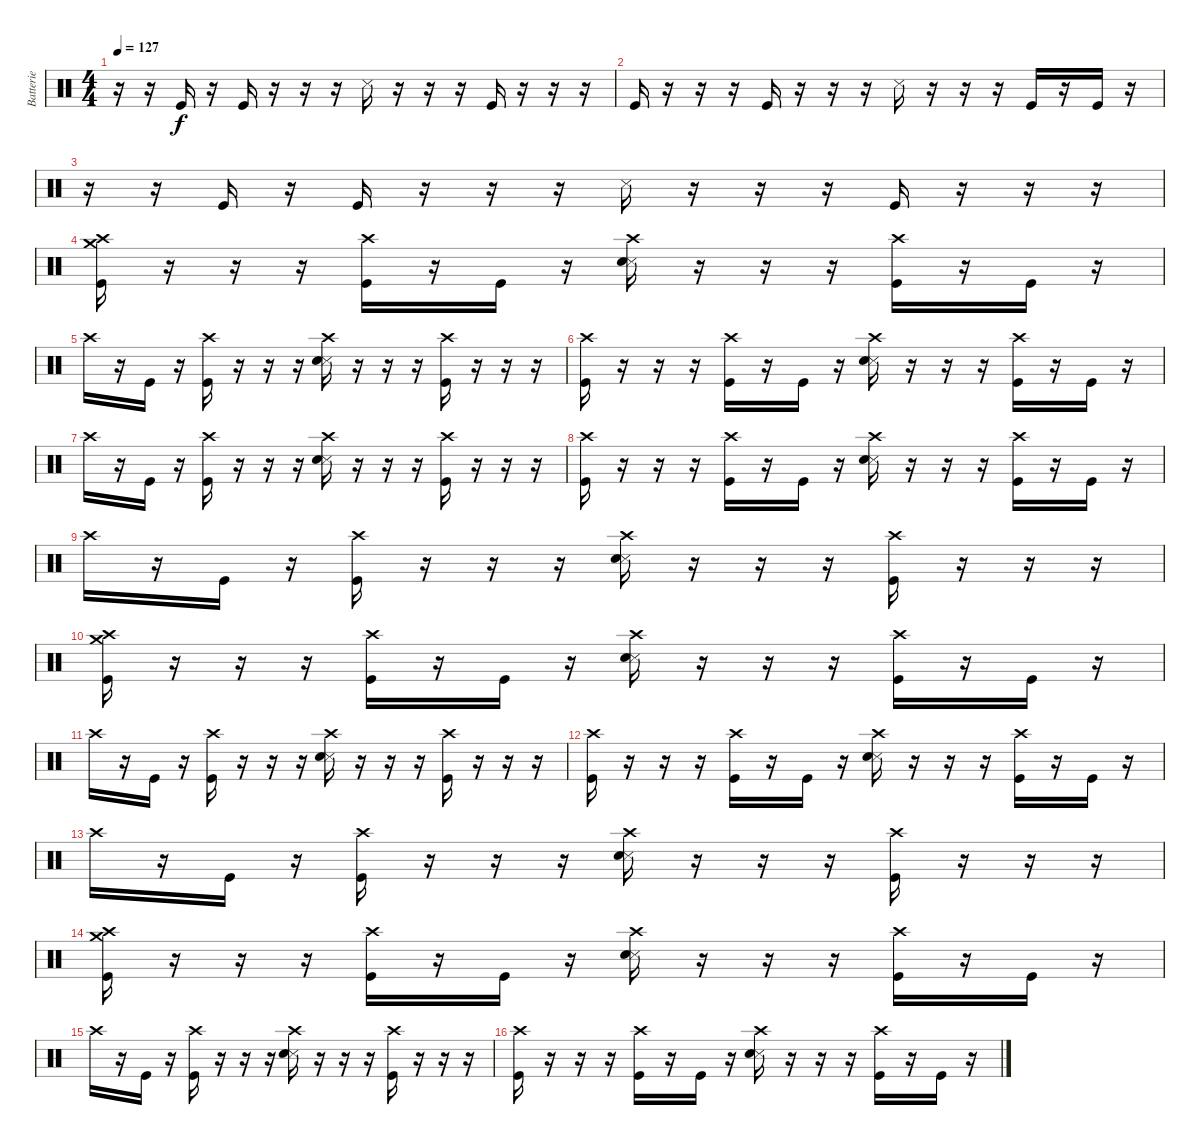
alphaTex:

\track ("Batterie" "Batterie") {instrument percussion}
\staff {score}
\articulation defaults
\ts (4 4)
\tempo 127
\clef neutral
\ks c
r.16{dy f} r.16 "Kick (hit)".16 r.16 "Kick (hit)".16 r.16 r.16 r.16 "Snare (side stick) 3".16 r.16 r.16 r.16 "Kick (hit)".16 r.16 r.16 r.16 |
"Kick (hit)".16 r.16 r.16 r.16 "Kick (hit)".16 r.16 r.16 r.16 "Snare (side stick) 3".16 r.16 r.16 r.16 "Kick (hit)".16 r.16 "Kick (hit)".16 r.16 |
r.16 r.16 "Kick (hit)".16 r.16 "Kick (hit)".16 r.16 r.16 r.16 "Snare (side stick) 3".16 r.16 r.16 r.16 "Kick (hit)".16 r.16 r.16 r.16 |
("Crash high (hit)" "Crash medium (hit)" "Kick (hit)").16 r.16 r.16 r.16 ("Crash high (hit)" "Kick (hit)").16 r.16 "Kick (hit)".16 r.16 ("Crash high (hit)" "Snare (side stick) 3" "Electric Snare (hit)").16 r.16 r.16 r.16 ("Crash high (hit)" "Kick (hit)").16 r.16 "Kick (hit)".16 r.16 |
"Crash high (hit)".16 r.16 "Kick (hit)".16 r.16 ("Crash high (hit)" "Kick (hit)").16 r.16 r.16 r.16 ("Crash high (hit)" "Snare (side stick) 3" "Electric Snare (hit)").16 r.16 r.16 r.16 ("Crash high (hit)" "Kick (hit)").16 r.16 r.16 r.16 |
("Crash high (hit)" "Kick (hit)").16 r.16 r.16 r.16 ("Crash high (hit)" "Kick (hit)").16 r.16 "Kick (hit)".16 r.16 ("Crash high (hit)" "Snare (side stick) 3" "Electric Snare (hit)").16 r.16 r.16 r.16 ("Crash high (hit)" "Kick (hit)").16 r.16 "Kick (hit)".16 r.16 |
"Crash high (hit)".16 r.16 "Kick (hit)".16 r.16 ("Crash high (hit)" "Kick (hit)").16 r.16 r.16 r.16 ("Crash high (hit)" "Snare (side stick) 3" "Electric Snare (hit)").16 r.16 r.16 r.16 ("Crash high (hit)" "Kick (hit)").16 r.16 r.16 r.16 |
("Crash high (hit)" "Kick (hit)").16 r.16 r.16 r.16 ("Crash high (hit)" "Kick (hit)").16 r.16 "Kick (hit)".16 r.16 ("Crash high (hit)" "Snare (side stick) 3" "Electric Snare (hit)").16 r.16 r.16 r.16 ("Crash high (hit)" "Kick (hit)").16 r.16 "Kick (hit)".16 r.16 |
"Crash high (hit)".16 r.16 "Kick (hit)".16 r.16 ("Crash high (hit)" "Kick (hit)").16 r.16 r.16 r.16 ("Crash high (hit)" "Snare (side stick) 3" "Electric Snare (hit)").16 r.16 r.16 r.16 ("Crash high (hit)" "Kick (hit)").16 r.16 r.16 r.16 |
("Crash high (hit)" "Crash medium (hit)" "Kick (hit)").16 r.16 r.16 r.16 ("Crash high (hit)" "Kick (hit)").16 r.16 "Kick (hit)".16 r.16 ("Crash high (hit)" "Snare (side stick) 3" "Electric Snare (hit)").16 r.16 r.16 r.16 ("Crash high (hit)" "Kick (hit)").16 r.16 "Kick (hit)".16 r.16 |
"Crash high (hit)".16 r.16 "Kick (hit)".16 r.16 ("Crash high (hit)" "Kick (hit)").16 r.16 r.16 r.16 ("Crash high (hit)" "Snare (side stick) 3" "Electric Snare (hit)").16 r.16 r.16 r.16 ("Crash high (hit)" "Kick (hit)").16 r.16 r.16 r.16 |
("Crash high (hit)" "Kick (hit)").16 r.16 r.16 r.16 ("Crash high (hit)" "Kick (hit)").16 r.16 "Kick (hit)".16 r.16 ("Crash high (hit)" "Snare (side stick) 3" "Electric Snare (hit)").16 r.16 r.16 r.16 ("Crash high (hit)" "Kick (hit)").16 r.16 "Kick (hit)".16 r.16 |
"Crash high (hit)".16 r.16 "Kick (hit)".16 r.16 ("Crash high (hit)" "Kick (hit)").16 r.16 r.16 r.16 ("Crash high (hit)" "Snare (side stick) 3" "Electric Snare (hit)").16 r.16 r.16 r.16 ("Crash high (hit)" "Kick (hit)").16 r.16 r.16 r.16 |
("Crash high (hit)" "Crash medium (hit)" "Kick (hit)").16 r.16 r.16 r.16 ("Crash high (hit)" "Kick (hit)").16 r.16 "Kick (hit)".16 r.16 ("Crash high (hit)" "Snare (side stick) 3" "Electric Snare (hit)").16 r.16 r.16 r.16 ("Crash high (hit)" "Kick (hit)").16 r.16 "Kick (hit)".16 r.16 |
"Crash high (hit)".16 r.16 "Kick (hit)".16 r.16 ("Crash high (hit)" "Kick (hit)").16 r.16 r.16 r.16 ("Crash high (hit)" "Snare (side stick) 3" "Electric Snare (hit)").16 r.16 r.16 r.16 ("Crash high (hit)" "Kick (hit)").16 r.16 r.16 r.16 |
("Crash high (hit)" "Kick (hit)").16 r.16 r.16 r.16 ("Crash high (hit)" "Kick (hit)").16 r.16 "Kick (hit)".16 r.16 ("Crash high (hit)" "Snare (side stick) 3" "Electric Snare (hit)").16 r.16 r.16 r.16 ("Crash high (hit)" "Kick (hit)").16 r.16 "Kick (hit)".16 r.16
